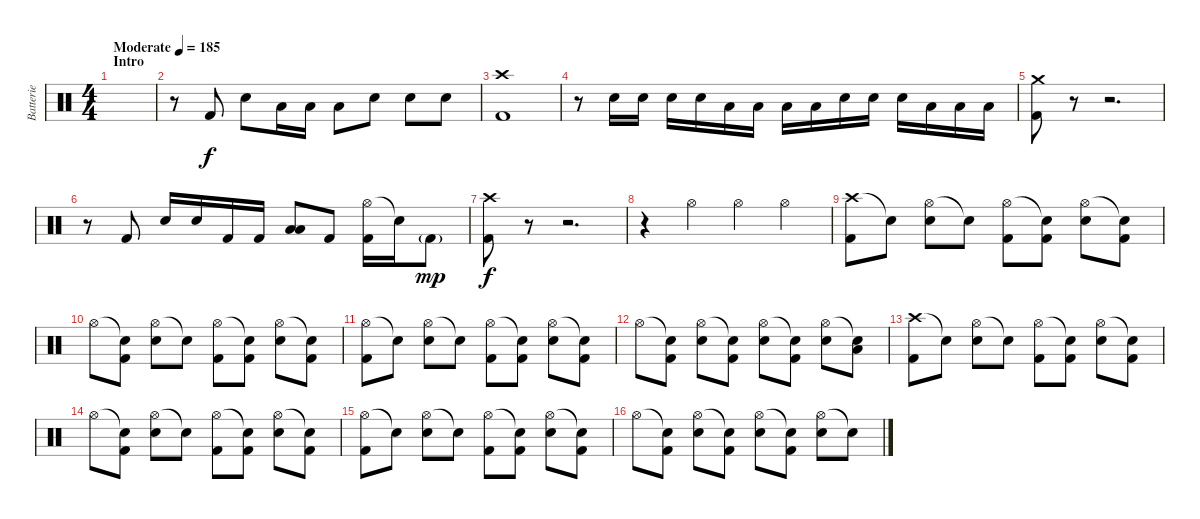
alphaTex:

\track ("Batterie" "Batterie") {instrument percussion}
\staff {score}
\articulation defaults
\ts (4 4)
\section ("" "Intro")
\tempo (185 "Moderate")
\clef neutral
\ks c
|
r.8 "Kick (hit) 2".8 "Electric Snare (hit)".8 "Low Tom (hit)".16 "Low Tom (hit)".16 "Low Floor Tom (hit)".8 "Electric Snare (hit)".8 "Electric Snare (hit)".8 "Electric Snare (hit)".8 |
("Crash high (hit)" "Kick (hit) 2").1 |
r.8 "Electric Snare (hit)".16 "Electric Snare (hit)".16 "Electric Snare (hit)".16 "Electric Snare (hit)".16 "Low Tom (hit)".16 "Low Tom (hit)".16 "Low Tom (hit)".16 "Low Tom (hit)".16 "Electric Snare (hit)".16 "Electric Snare (hit)".16 "Electric Snare (hit)".16 "Low Floor Tom (hit)".16 "Low Floor Tom (hit)".16 "Low Floor Tom (hit)".16 |
("Crash medium (hit)" "Kick (hit) 2").8 r.8 r.2{d} |
r.8 "Kick (hit) 2".8 "Electric Snare (hit)".16 "Electric Snare (hit)".16 "Kick (hit) 2".16 "Kick (hit) 2".16 ("Low Tom (hit)" "Low Floor Tom (hit)").8 "Kick (hit) 2".8 ("Hi-Hat (open)" "Kick (hit) 2").16 "Snare (hit)"{t}.16 "Kick (hit) 2"{g}.8{dy mp} |
("Crash high (hit)" "Kick (hit) 2").8{dy f} r.8 r.2{d} |
r.4 "Hi-Hat (open)".4 "Hi-Hat (open)".4 "Hi-Hat (open)".4 |
("Crash high (hit)" "Kick (hit) 2").8 "Snare (hit)"{t}.8 ("Hi-Hat (open)" "Electric Snare (hit)").8 "Snare (hit)"{t}.8 ("Hi-Hat (open)" "Kick (hit) 2").8 ("Snare (hit)"{t} "Kick (hit) 2").8 ("Hi-Hat (open)" "Electric Snare (hit)").8 ("Snare (hit)"{t} "Kick (hit) 2").8 |
"Hi-Hat (open)".8 ("Snare (hit)"{t} "Kick (hit) 2").8 ("Hi-Hat (open)" "Electric Snare (hit)").8 "Snare (hit)"{t}.8 ("Hi-Hat (open)" "Kick (hit) 2").8 ("Snare (hit)"{t} "Kick (hit) 2").8 ("Hi-Hat (open)" "Electric Snare (hit)").8 ("Snare (hit)"{t} "Kick (hit) 2").8 |
("Hi-Hat (open)" "Kick (hit) 2").8 "Snare (hit)"{t}.8 ("Hi-Hat (open)" "Electric Snare (hit)").8 "Snare (hit)"{t}.8 ("Hi-Hat (open)" "Kick (hit) 2").8 ("Snare (hit)"{t} "Kick (hit) 2").8 ("Hi-Hat (open)" "Electric Snare (hit)").8 ("Snare (hit)"{t} "Kick (hit) 2").8 |
"Hi-Hat (open)".8 ("Snare (hit)"{t} "Kick (hit) 2").8 ("Hi-Hat (open)" "Electric Snare (hit)").8 ("Snare (hit)"{t} "Kick (hit) 2").8 ("Hi-Hat (open)" "Electric Snare (hit)").8 ("Snare (hit)"{t} "Kick (hit) 2").8 ("Hi-Hat (open)" "Electric Snare (hit)").8 ("Snare (hit)"{t} "Low Floor Tom (hit)").8 |
("Crash high (hit)" "Kick (hit) 2").8 "Snare (hit)"{t}.8 ("Hi-Hat (open)" "Electric Snare (hit)").8 "Snare (hit)"{t}.8 ("Hi-Hat (open)" "Kick (hit) 2").8 ("Snare (hit)"{t} "Kick (hit) 2").8 ("Hi-Hat (open)" "Electric Snare (hit)").8 ("Snare (hit)"{t} "Kick (hit) 2").8 |
"Hi-Hat (open)".8 ("Snare (hit)"{t} "Kick (hit) 2").8 ("Hi-Hat (open)" "Electric Snare (hit)").8 "Snare (hit)"{t}.8 ("Hi-Hat (open)" "Kick (hit) 2").8 ("Snare (hit)"{t} "Kick (hit) 2").8 ("Hi-Hat (open)" "Electric Snare (hit)").8 ("Snare (hit)"{t} "Kick (hit) 2").8 |
("Hi-Hat (open)" "Kick (hit) 2").8 "Snare (hit)"{t}.8 ("Hi-Hat (open)" "Electric Snare (hit)").8 "Snare (hit)"{t}.8 ("Hi-Hat (open)" "Kick (hit) 2").8 ("Snare (hit)"{t} "Kick (hit) 2").8 ("Hi-Hat (open)" "Electric Snare (hit)").8 ("Snare (hit)"{t} "Kick (hit) 2").8 |
"Hi-Hat (open)".8 ("Snare (hit)"{t} "Kick (hit) 2").8 ("Hi-Hat (open)" "Electric Snare (hit)").8 ("Snare (hit)"{t} "Kick (hit) 2").8 ("Hi-Hat (open)" "Electric Snare (hit)").8 ("Snare (hit)"{t} "Kick (hit) 2").8 ("Hi-Hat (open)" "Electric Snare (hit)").8 "Snare (hit)"{t}.8
